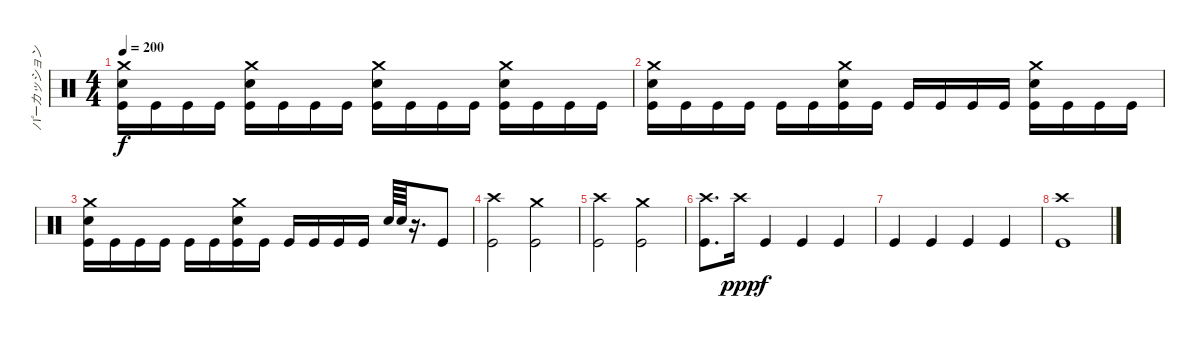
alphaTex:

\track ("パーカッション" "パーカッション") {instrument percussion}
\staff {score}
\articulation defaults
\ts (4 4)
\tempo 200
\clef neutral
\ks c
("Kick (hit)" "Snare (hit) 2" "Crash medium (hit)").16{dy f} "Kick (hit)".16 "Kick (hit)".16 "Kick (hit)".16 ("Kick (hit)" "Snare (hit) 2" "Crash medium (hit)").16 "Kick (hit)".16 "Kick (hit)".16 "Kick (hit)".16 ("Kick (hit)" "Snare (hit) 2" "Crash medium (hit)").16 "Kick (hit)".16 "Kick (hit)".16 "Kick (hit)".16 ("Kick (hit)" "Snare (hit) 2" "Crash medium (hit)").16 "Kick (hit)".16 "Kick (hit)".16 "Kick (hit)".16 |
("Kick (hit)" "Snare (hit) 2" "Crash medium (hit)").16 "Kick (hit)".16 "Kick (hit)".16 "Kick (hit)".16 "Kick (hit)".16 "Kick (hit)".16 ("Kick (hit)" "Snare (hit) 2" "Crash medium (hit)").16 "Kick (hit)".16 "Kick (hit)".16 "Kick (hit)".16 "Kick (hit)".16 "Kick (hit)".16 ("Kick (hit)" "Snare (hit) 2" "Crash medium (hit)").16 "Kick (hit)".16 "Kick (hit)".16 "Kick (hit)".16 |
("Kick (hit)" "Snare (hit) 2" "Crash medium (hit)").16 "Kick (hit)".16 "Kick (hit)".16 "Kick (hit)".16 "Kick (hit)".16 "Kick (hit)".16 ("Kick (hit)" "Snare (hit) 2" "Crash medium (hit)").16 "Kick (hit)".16 "Kick (hit)".16 "Kick (hit)".16 "Kick (hit)".16 "Kick (hit)".16 "Snare (hit) 2".64 "Snare (hit) 2".64 r.16{d} "Kick (hit)".8 |
("Crash high (hit)" "Kick (hit)").2 ("Crash medium (hit)" "Kick (hit)").2 |
("Crash high (hit)" "Kick (hit)").2 ("Crash medium (hit)" "Kick (hit)").2 |
("Crash high (hit)" "Kick (hit)").8{d} "Crash high (hit)".16{dy ppp} "Kick (hit)".4{dy f} "Kick (hit)".4 "Kick (hit)".4 |
"Kick (hit)".4 "Kick (hit)".4 "Kick (hit)".4 "Kick (hit)".4 |
("Crash high (hit)" "Kick (hit)").1
